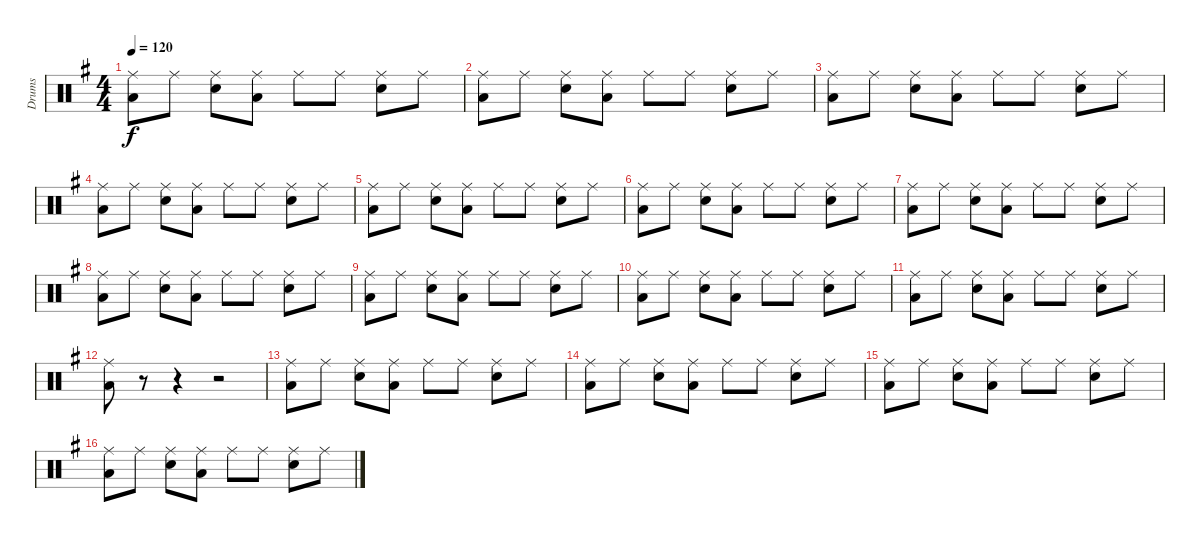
\track ("Drums" "Drums") {instrument percussion}
\staff {score}
\articulation defaults
\ts (4 4)
\tempo 120
\clef neutral
\ks g
("Ride (middle)" "Low Floor Tom (hit)").8{dy f} "Ride (middle)".8 ("Ride (middle)" "Snare (hit) 2").8 ("Ride (middle)" "Low Floor Tom (hit)").8 "Ride (middle)".8 "Ride (middle)".8 ("Ride (middle)" "Snare (hit) 2").8 "Ride (middle)".8 |
("Ride (middle)" "Low Floor Tom (hit)").8 "Ride (middle)".8 ("Ride (middle)" "Snare (hit) 2").8 ("Ride (middle)" "Low Floor Tom (hit)").8 "Ride (middle)".8 "Ride (middle)".8 ("Ride (middle)" "Snare (hit) 2").8 "Ride (middle)".8 |
("Ride (middle)" "Low Floor Tom (hit)").8 "Ride (middle)".8 ("Ride (middle)" "Snare (hit) 2").8 ("Ride (middle)" "Low Floor Tom (hit)").8 "Ride (middle)".8 "Ride (middle)".8 ("Ride (middle)" "Snare (hit) 2").8 "Ride (middle)".8 |
("Ride (middle)" "Low Floor Tom (hit)").8 "Ride (middle)".8 ("Ride (middle)" "Snare (hit) 2").8 ("Ride (middle)" "Low Floor Tom (hit)").8 "Ride (middle)".8 "Ride (middle)".8 ("Ride (middle)" "Snare (hit) 2").8 "Ride (middle)".8 |
("Ride (middle)" "Low Floor Tom (hit)").8 "Ride (middle)".8 ("Ride (middle)" "Snare (hit) 2").8 ("Ride (middle)" "Low Floor Tom (hit)").8 "Ride (middle)".8 "Ride (middle)".8 ("Ride (middle)" "Snare (hit) 2").8 "Ride (middle)".8 |
("Ride (middle)" "Low Floor Tom (hit)").8 "Ride (middle)".8 ("Ride (middle)" "Snare (hit) 2").8 ("Ride (middle)" "Low Floor Tom (hit)").8 "Ride (middle)".8 "Ride (middle)".8 ("Ride (middle)" "Snare (hit) 2").8 "Ride (middle)".8 |
("Ride (middle)" "Low Floor Tom (hit)").8 "Ride (middle)".8 ("Ride (middle)" "Snare (hit) 2").8 ("Ride (middle)" "Low Floor Tom (hit)").8 "Ride (middle)".8 "Ride (middle)".8 ("Ride (middle)" "Snare (hit) 2").8 "Ride (middle)".8 |
("Ride (middle)" "Low Floor Tom (hit)").8 "Ride (middle)".8 ("Ride (middle)" "Snare (hit) 2").8 ("Ride (middle)" "Low Floor Tom (hit)").8 "Ride (middle)".8 "Ride (middle)".8 ("Ride (middle)" "Snare (hit) 2").8 "Ride (middle)".8 |
("Ride (middle)" "Low Floor Tom (hit)").8 "Ride (middle)".8 ("Ride (middle)" "Snare (hit) 2").8 ("Ride (middle)" "Low Floor Tom (hit)").8 "Ride (middle)".8 "Ride (middle)".8 ("Ride (middle)" "Snare (hit) 2").8 "Ride (middle)".8 |
("Ride (middle)" "Low Floor Tom (hit)").8 "Ride (middle)".8 ("Ride (middle)" "Snare (hit) 2").8 ("Ride (middle)" "Low Floor Tom (hit)").8 "Ride (middle)".8 "Ride (middle)".8 ("Ride (middle)" "Snare (hit) 2").8 "Ride (middle)".8 |
("Ride (middle)" "Low Floor Tom (hit)").8 "Ride (middle)".8 ("Ride (middle)" "Snare (hit) 2").8 ("Ride (middle)" "Low Floor Tom (hit)").8 "Ride (middle)".8 "Ride (middle)".8 ("Ride (middle)" "Snare (hit) 2").8 "Ride (middle)".8 |
("Ride (middle)" "Low Floor Tom (hit)").8 r.8 r.4 r.2 |
("Ride (middle)" "Low Floor Tom (hit)").8 "Ride (middle)".8 ("Ride (middle)" "Snare (hit) 2").8 ("Ride (middle)" "Low Floor Tom (hit)").8 "Ride (middle)".8 "Ride (middle)".8 ("Ride (middle)" "Snare (hit) 2").8 "Ride (middle)".8 |
("Ride (middle)" "Low Floor Tom (hit)").8 "Ride (middle)".8 ("Ride (middle)" "Snare (hit) 2").8 ("Ride (middle)" "Low Floor Tom (hit)").8 "Ride (middle)".8 "Ride (middle)".8 ("Ride (middle)" "Snare (hit) 2").8 "Ride (middle)".8 |
("Ride (middle)" "Low Floor Tom (hit)").8 "Ride (middle)".8 ("Ride (middle)" "Snare (hit) 2").8 ("Ride (middle)" "Low Floor Tom (hit)").8 "Ride (middle)".8 "Ride (middle)".8 ("Ride (middle)" "Snare (hit) 2").8 "Ride (middle)".8 |
("Ride (middle)" "Low Floor Tom (hit)").8 "Ride (middle)".8 ("Ride (middle)" "Snare (hit) 2").8 ("Ride (middle)" "Low Floor Tom (hit)").8 "Ride (middle)".8 "Ride (middle)".8 ("Ride (middle)" "Snare (hit) 2").8 "Ride (middle)".8
